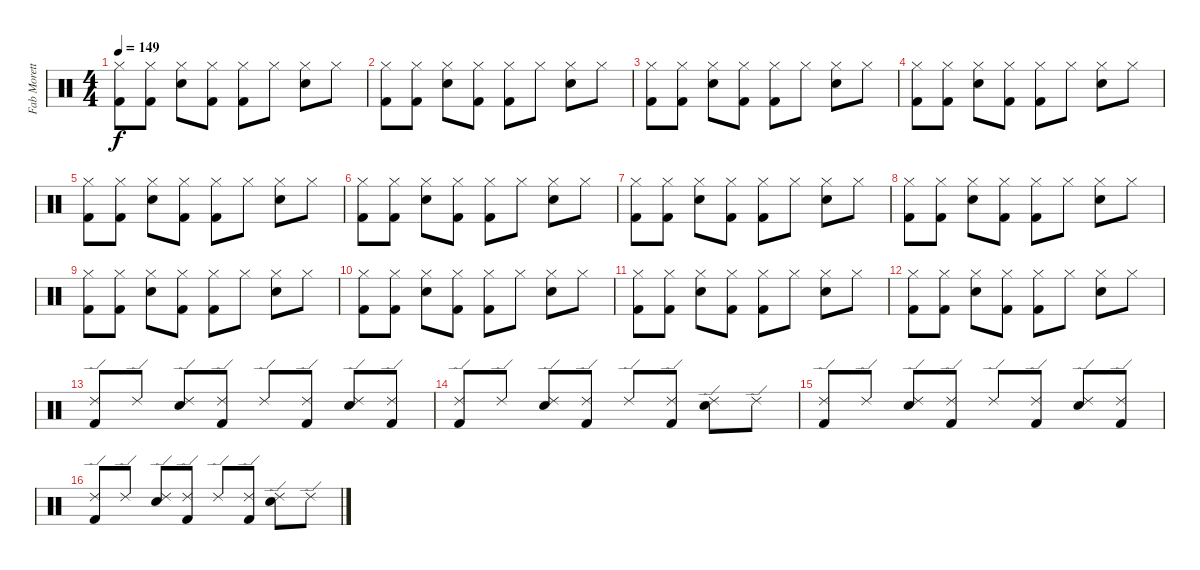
\track ("Fab Moretti" "Fab Morett") {instrument percussion}
\staff {score}
\articulation defaults
\ts (4 4)
\tempo 149
\clef neutral
\ks c
("Hi-Hat (closed)" "Kick (hit) 2").8{dy f} ("Hi-Hat (closed)" "Kick (hit) 2").8 ("Hi-Hat (closed)" "Electric Snare (hit)").8 ("Hi-Hat (closed)" "Kick (hit) 2").8 ("Hi-Hat (closed)" "Kick (hit) 2").8 "Hi-Hat (closed)".8 ("Hi-Hat (closed)" "Electric Snare (hit)").8 "Hi-Hat (closed)".8 |
("Hi-Hat (closed)" "Kick (hit) 2").8 ("Hi-Hat (closed)" "Kick (hit) 2").8 ("Hi-Hat (closed)" "Electric Snare (hit)").8 ("Hi-Hat (closed)" "Kick (hit) 2").8 ("Hi-Hat (closed)" "Kick (hit) 2").8 "Hi-Hat (closed)".8 ("Hi-Hat (closed)" "Electric Snare (hit)").8 "Hi-Hat (closed)".8 |
("Hi-Hat (closed)" "Kick (hit) 2").8 ("Hi-Hat (closed)" "Kick (hit) 2").8 ("Hi-Hat (closed)" "Electric Snare (hit)").8 ("Hi-Hat (closed)" "Kick (hit) 2").8 ("Hi-Hat (closed)" "Kick (hit) 2").8 "Hi-Hat (closed)".8 ("Hi-Hat (closed)" "Electric Snare (hit)").8 "Hi-Hat (closed)".8 |
("Hi-Hat (closed)" "Kick (hit) 2").8 ("Hi-Hat (closed)" "Kick (hit) 2").8 ("Hi-Hat (closed)" "Electric Snare (hit)").8 ("Hi-Hat (closed)" "Kick (hit) 2").8 ("Hi-Hat (closed)" "Kick (hit) 2").8 "Hi-Hat (closed)".8 ("Hi-Hat (closed)" "Electric Snare (hit)").8 "Hi-Hat (closed)".8 |
("Hi-Hat (closed)" "Kick (hit) 2").8 ("Hi-Hat (closed)" "Kick (hit) 2").8 ("Hi-Hat (closed)" "Electric Snare (hit)").8 ("Hi-Hat (closed)" "Kick (hit) 2").8 ("Hi-Hat (closed)" "Kick (hit) 2").8 "Hi-Hat (closed)".8 ("Hi-Hat (closed)" "Electric Snare (hit)").8 "Hi-Hat (closed)".8 |
("Hi-Hat (closed)" "Kick (hit) 2").8 ("Hi-Hat (closed)" "Kick (hit) 2").8 ("Hi-Hat (closed)" "Electric Snare (hit)").8 ("Hi-Hat (closed)" "Kick (hit) 2").8 ("Hi-Hat (closed)" "Kick (hit) 2").8 "Hi-Hat (closed)".8 ("Hi-Hat (closed)" "Electric Snare (hit)").8 "Hi-Hat (closed)".8 |
("Hi-Hat (closed)" "Kick (hit) 2").8 ("Hi-Hat (closed)" "Kick (hit) 2").8 ("Hi-Hat (closed)" "Electric Snare (hit)").8 ("Hi-Hat (closed)" "Kick (hit) 2").8 ("Hi-Hat (closed)" "Kick (hit) 2").8 "Hi-Hat (closed)".8 ("Hi-Hat (closed)" "Electric Snare (hit)").8 "Hi-Hat (closed)".8 |
("Hi-Hat (closed)" "Kick (hit) 2").8 ("Hi-Hat (closed)" "Kick (hit) 2").8 ("Hi-Hat (closed)" "Electric Snare (hit)").8 ("Hi-Hat (closed)" "Kick (hit) 2").8 ("Hi-Hat (closed)" "Kick (hit) 2").8 "Hi-Hat (closed)".8 ("Hi-Hat (closed)" "Electric Snare (hit)").8 "Hi-Hat (closed)".8 |
("Hi-Hat (closed)" "Kick (hit) 2").8 ("Hi-Hat (closed)" "Kick (hit) 2").8 ("Hi-Hat (closed)" "Electric Snare (hit)").8 ("Hi-Hat (closed)" "Kick (hit) 2").8 ("Hi-Hat (closed)" "Kick (hit) 2").8 "Hi-Hat (closed)".8 ("Hi-Hat (closed)" "Electric Snare (hit)").8 "Hi-Hat (closed)".8 |
("Hi-Hat (closed)" "Kick (hit) 2").8 ("Hi-Hat (closed)" "Kick (hit) 2").8 ("Hi-Hat (closed)" "Electric Snare (hit)").8 ("Hi-Hat (closed)" "Kick (hit) 2").8 ("Hi-Hat (closed)" "Kick (hit) 2").8 "Hi-Hat (closed)".8 ("Hi-Hat (closed)" "Electric Snare (hit)").8 "Hi-Hat (closed)".8 |
("Hi-Hat (closed)" "Kick (hit) 2").8 ("Hi-Hat (closed)" "Kick (hit) 2").8 ("Hi-Hat (closed)" "Electric Snare (hit)").8 ("Hi-Hat (closed)" "Kick (hit) 2").8 ("Hi-Hat (closed)" "Kick (hit) 2").8 "Hi-Hat (closed)".8 ("Hi-Hat (closed)" "Electric Snare (hit)").8 "Hi-Hat (closed)".8 |
("Hi-Hat (closed)" "Kick (hit) 2").8 ("Hi-Hat (closed)" "Kick (hit) 2").8 ("Hi-Hat (closed)" "Electric Snare (hit)").8 ("Hi-Hat (closed)" "Kick (hit) 2").8 ("Hi-Hat (closed)" "Kick (hit) 2").8 "Hi-Hat (closed)".8 ("Hi-Hat (closed)" "Electric Snare (hit)").8 "Hi-Hat (closed)".8 |
("Ride (edge) 2" "Kick (hit) 2").8 "Ride (edge) 2".8 ("Ride (edge) 2" "Electric Snare (hit)").8 ("Ride (edge) 2" "Kick (hit) 2").8 "Ride (edge) 2".8 ("Ride (edge) 2" "Kick (hit) 2").8 ("Ride (edge) 2" "Electric Snare (hit)").8 ("Ride (edge) 2" "Kick (hit) 2").8 |
("Ride (edge) 2" "Kick (hit) 2").8 "Ride (edge) 2".8 ("Ride (edge) 2" "Electric Snare (hit)").8 ("Ride (edge) 2" "Kick (hit) 2").8 "Ride (edge) 2".8 ("Ride (edge) 2" "Kick (hit) 2").8 ("Ride (edge) 2" "Electric Snare (hit)").8 "Ride (edge) 2".8 |
("Ride (edge) 2" "Kick (hit) 2").8 "Ride (edge) 2".8 ("Ride (edge) 2" "Electric Snare (hit)").8 ("Ride (edge) 2" "Kick (hit) 2").8 "Ride (edge) 2".8 ("Ride (edge) 2" "Kick (hit) 2").8 ("Ride (edge) 2" "Electric Snare (hit)").8 ("Ride (edge) 2" "Kick (hit) 2").8 |
("Ride (edge) 2" "Kick (hit) 2").8 "Ride (edge) 2".8 ("Ride (edge) 2" "Electric Snare (hit)").8 ("Ride (edge) 2" "Kick (hit) 2").8 "Ride (edge) 2".8 ("Ride (edge) 2" "Kick (hit) 2").8 ("Ride (edge) 2" "Electric Snare (hit)").8 "Ride (edge) 2".8
